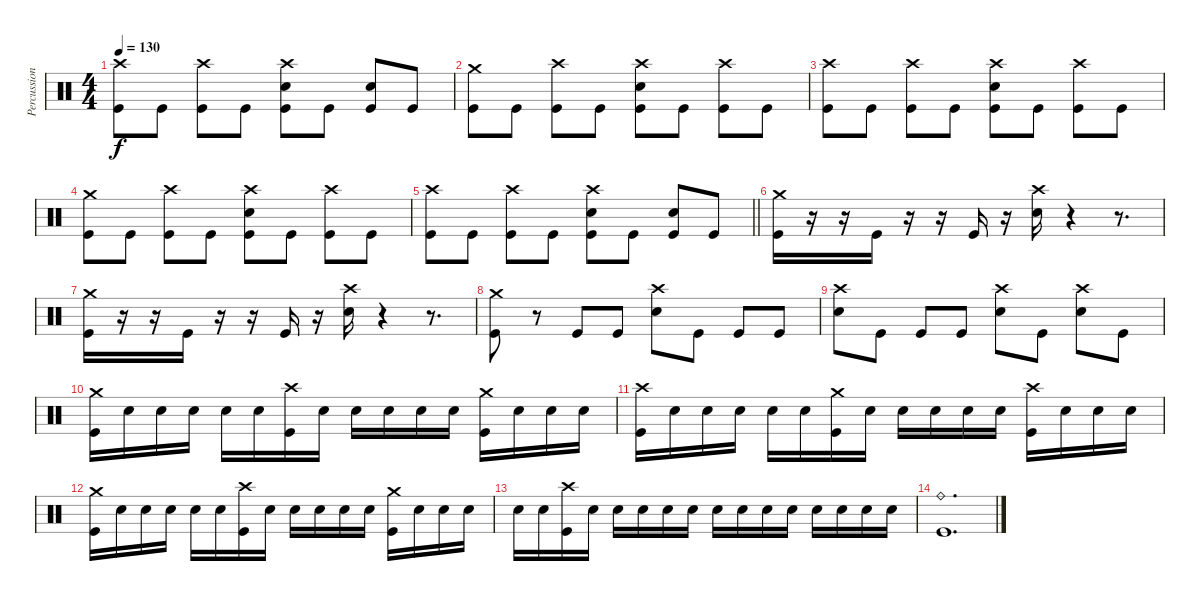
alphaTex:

\track ("Percussion" "Percussion") {instrument percussion}
\staff {score}
\articulation defaults
\ts (4 4)
\tempo 130
\clef neutral
\ks c
("Crash high (hit)" "Kick (hit)").8{dy f} "Kick (hit)".8 ("Crash high (hit)" "Kick (hit)").8 "Kick (hit)".8 ("Crash high (hit)" "Electric Snare (hit)" "Kick (hit)").8 "Kick (hit)".8 ("Electric Snare (hit)" "Kick (hit)").8 "Kick (hit)".8 |
("Crash medium (hit)" "Kick (hit)").8 "Kick (hit)".8 ("Crash high (hit)" "Kick (hit)").8 "Kick (hit)".8 ("Crash high (hit)" "Electric Snare (hit)" "Kick (hit)").8 "Kick (hit)".8 ("Crash high (hit)" "Kick (hit)").8 "Kick (hit)".8 |
("Crash high (hit)" "Kick (hit)").8 "Kick (hit)".8 ("Crash high (hit)" "Kick (hit)").8 "Kick (hit)".8 ("Crash high (hit)" "Electric Snare (hit)" "Kick (hit)").8 "Kick (hit)".8 ("Crash high (hit)" "Kick (hit)").8 "Kick (hit)".8 |
("Crash medium (hit)" "Kick (hit)").8 "Kick (hit)".8 ("Crash high (hit)" "Kick (hit)").8 "Kick (hit)".8 ("Crash high (hit)" "Electric Snare (hit)" "Kick (hit)").8 "Kick (hit)".8 ("Crash high (hit)" "Kick (hit)").8 "Kick (hit)".8 |
\barLineRight lightlight
("Crash high (hit)" "Kick (hit)").8 "Kick (hit)".8 ("Crash high (hit)" "Kick (hit)").8 "Kick (hit)".8 ("Crash high (hit)" "Electric Snare (hit)" "Kick (hit)").8 "Kick (hit)".8 ("Electric Snare (hit)" "Kick (hit)").8 "Kick (hit)".8 |
\section ("" "")
("Crash medium (hit)" "Kick (hit)").16 r.16 r.16 "Kick (hit)".16 r.16 r.16 "Kick (hit)".16 r.16 ("Crash high (hit)" "Electric Snare (hit)").16 r.4 r.8{d} |
("Crash medium (hit)" "Kick (hit)").16 r.16 r.16 "Kick (hit)".16 r.16 r.16 "Kick (hit)".16 r.16 ("Crash high (hit)" "Electric Snare (hit)").16 r.4 r.8{d} |
("Crash medium (hit)" "Kick (hit)").8 r.8 "Kick (hit)".8 "Kick (hit)".8 ("Crash high (hit)" "Electric Snare (hit)").8 "Kick (hit)".8 "Kick (hit)".8 "Kick (hit)".8 |
("Crash high (hit)" "Electric Snare (hit)").8 "Kick (hit)".8 "Kick (hit)".8 "Kick (hit)".8 ("Crash high (hit)" "Electric Snare (hit)").8 "Kick (hit)".8 ("Crash high (hit)" "Electric Snare (hit)").8 "Kick (hit)".8 |
("Crash medium (hit)" "Kick (hit)").16 "Electric Snare (hit)".16 "Electric Snare (hit)".16 "Electric Snare (hit)".16 "Electric Snare (hit)".16 "Electric Snare (hit)".16 ("Crash high (hit)" "Kick (hit)").16 "Electric Snare (hit)".16 "Electric Snare (hit)".16 "Electric Snare (hit)".16 "Electric Snare (hit)".16 "Electric Snare (hit)".16 ("Crash medium (hit)" "Kick (hit)").16 "Electric Snare (hit)".16 "Electric Snare (hit)".16 "Electric Snare (hit)".16 |
("Crash high (hit)" "Kick (hit)").16 "Electric Snare (hit)".16 "Electric Snare (hit)".16 "Electric Snare (hit)".16 "Electric Snare (hit)".16 "Electric Snare (hit)".16 ("Crash medium (hit)" "Kick (hit)").16 "Electric Snare (hit)".16 "Electric Snare (hit)".16 "Electric Snare (hit)".16 "Electric Snare (hit)".16 "Electric Snare (hit)".16 ("Crash high (hit)" "Kick (hit)").16 "Electric Snare (hit)".16 "Electric Snare (hit)".16 "Electric Snare (hit)".16 |
("Crash medium (hit)" "Kick (hit)").16 "Electric Snare (hit)".16 "Electric Snare (hit)".16 "Electric Snare (hit)".16 "Electric Snare (hit)".16 "Electric Snare (hit)".16 ("Crash high (hit)" "Kick (hit)").16 "Electric Snare (hit)".16 "Electric Snare (hit)".16 "Electric Snare (hit)".16 "Electric Snare (hit)".16 "Electric Snare (hit)".16 ("Crash medium (hit)" "Kick (hit)").16 "Electric Snare (hit)".16 "Electric Snare (hit)".16 "Electric Snare (hit)".16 |
"Electric Snare (hit)".16 "Electric Snare (hit)".16 ("Crash high (hit)" "Kick (hit)").16 "Electric Snare (hit)".16 "Electric Snare (hit)".16 "Electric Snare (hit)".16 "Electric Snare (hit)".16 "Electric Snare (hit)".16 "Electric Snare (hit)".16 "Electric Snare (hit)".16 "Electric Snare (hit)".16 "Electric Snare (hit)".16 "Electric Snare (hit)".16 "Electric Snare (hit)".16 "Electric Snare (hit)".16 "Electric Snare (hit)".16 |
("Ride (bell)" "Kick (hit)").1{d}
